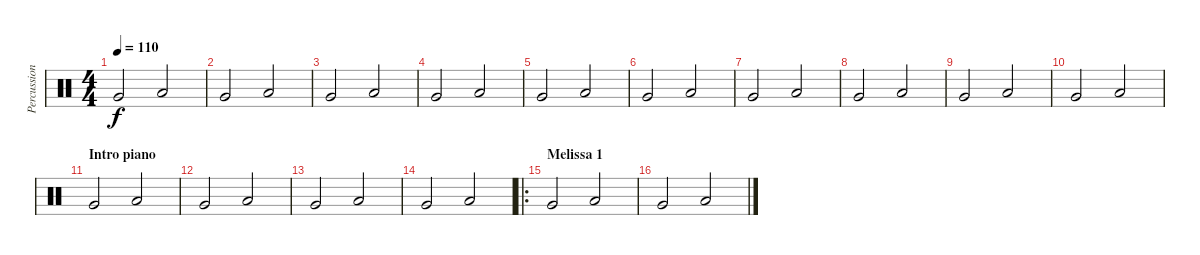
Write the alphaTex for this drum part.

\track ("Percussions" "Percussion") {instrument percussion}
\staff {score}
\articulation defaults
\ts (4 4)
\tempo 110
\clef neutral
\ks c "Very Low Tom (hit)".2{dy f} "Low Floor Tom (hit)".2
|
"Very Low Tom (hit)".2 "Low Floor Tom (hit)".2 |
"Very Low Tom (hit)".2 "Low Floor Tom (hit)".2 |
"Very Low Tom (hit)".2 "Low Floor Tom (hit)".2 |
"Very Low Tom (hit)".2 "Low Floor Tom (hit)".2 |
"Very Low Tom (hit)".2 "Low Floor Tom (hit)".2 |
"Very Low Tom (hit)".2 "Low Floor Tom (hit)".2 |
"Very Low Tom (hit)".2 "Low Floor Tom (hit)".2 |
"Very Low Tom (hit)".2 "Low Floor Tom (hit)".2 |
"Very Low Tom (hit)".2 "Low Floor Tom (hit)".2 |
\section ("" "Intro piano")
"Very Low Tom (hit)".2 "Low Floor Tom (hit)".2 |
"Very Low Tom (hit)".2 "Low Floor Tom (hit)".2 |
"Very Low Tom (hit)".2 "Low Floor Tom (hit)".2 |
"Very Low Tom (hit)".2 "Low Floor Tom (hit)".2 |
\ro
\section ("" "Melissa 1")
"Very Low Tom (hit)".2 "Low Floor Tom (hit)".2 |
"Very Low Tom (hit)".2 "Low Floor Tom (hit)".2
